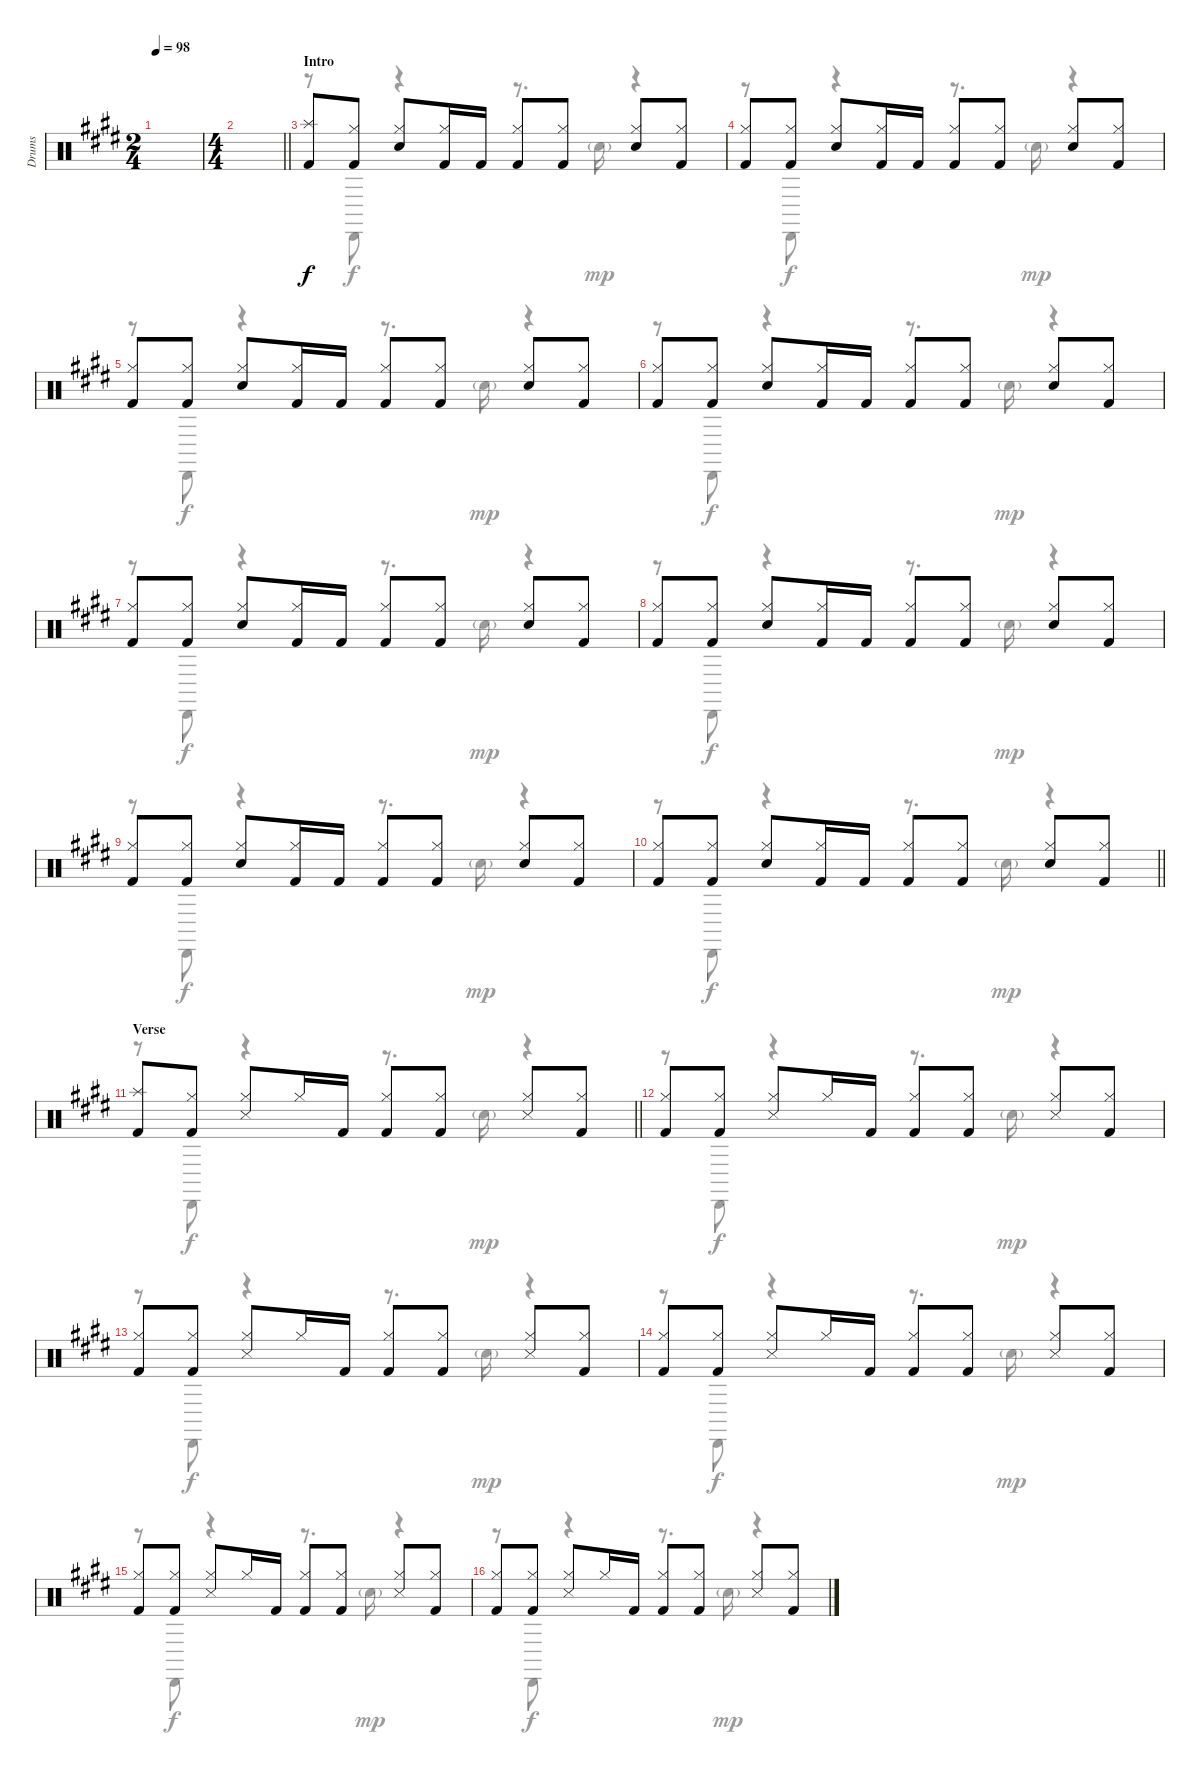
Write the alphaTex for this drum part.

\track ("Drums" "Drums") {instrument percussion}
\staff {score}
\articulation defaults
\voice
\ts (2 4)
\tempo 98
\clef neutral
\ks e
|
\ts (4 4)
\barLineRight lightlight
|
\section ("" "Intro")
("Splash (hit)" "Kick (hit) 2").8 ("Hi-Hat (closed)" "Kick (hit) 2").8 ("Hi-Hat (closed)" "Electric Snare (hit)").8 ("Hi-Hat (closed)" "Kick (hit) 2").16 "Kick (hit) 2".16 ("Hi-Hat (closed)" "Kick (hit) 2").8 ("Hi-Hat (closed)" "Kick (hit) 2").8 ("Hi-Hat (closed)" "Electric Snare (hit)").8 ("Hi-Hat (closed)" "Kick (hit) 2").8 |
("Hi-Hat (closed)" "Kick (hit) 2").8 ("Hi-Hat (closed)" "Kick (hit) 2").8 ("Hi-Hat (closed)" "Electric Snare (hit)").8 ("Hi-Hat (closed)" "Kick (hit) 2").16 "Kick (hit) 2".16 ("Hi-Hat (closed)" "Kick (hit) 2").8 ("Hi-Hat (closed)" "Kick (hit) 2").8 ("Hi-Hat (closed)" "Electric Snare (hit)").8 ("Hi-Hat (closed)" "Kick (hit) 2").8 |
("Hi-Hat (closed)" "Kick (hit) 2").8 ("Hi-Hat (closed)" "Kick (hit) 2").8 ("Hi-Hat (closed)" "Electric Snare (hit)").8 ("Hi-Hat (closed)" "Kick (hit) 2").16 "Kick (hit) 2".16 ("Hi-Hat (closed)" "Kick (hit) 2").8 ("Hi-Hat (closed)" "Kick (hit) 2").8 ("Hi-Hat (closed)" "Electric Snare (hit)").8 ("Hi-Hat (closed)" "Kick (hit) 2").8 |
("Hi-Hat (closed)" "Kick (hit) 2").8 ("Hi-Hat (closed)" "Kick (hit) 2").8 ("Hi-Hat (closed)" "Electric Snare (hit)").8 ("Hi-Hat (closed)" "Kick (hit) 2").16 "Kick (hit) 2".16 ("Hi-Hat (closed)" "Kick (hit) 2").8 ("Hi-Hat (closed)" "Kick (hit) 2").8 ("Hi-Hat (closed)" "Electric Snare (hit)").8 ("Hi-Hat (closed)" "Kick (hit) 2").8 |
("Hi-Hat (closed)" "Kick (hit) 2").8 ("Hi-Hat (closed)" "Kick (hit) 2").8 ("Hi-Hat (closed)" "Electric Snare (hit)").8 ("Hi-Hat (closed)" "Kick (hit) 2").16 "Kick (hit) 2".16 ("Hi-Hat (closed)" "Kick (hit) 2").8 ("Hi-Hat (closed)" "Kick (hit) 2").8 ("Hi-Hat (closed)" "Electric Snare (hit)").8 ("Hi-Hat (closed)" "Kick (hit) 2").8 |
("Hi-Hat (closed)" "Kick (hit) 2").8 ("Hi-Hat (closed)" "Kick (hit) 2").8 ("Hi-Hat (closed)" "Electric Snare (hit)").8 ("Hi-Hat (closed)" "Kick (hit) 2").16 "Kick (hit) 2".16 ("Hi-Hat (closed)" "Kick (hit) 2").8 ("Hi-Hat (closed)" "Kick (hit) 2").8 ("Hi-Hat (closed)" "Electric Snare (hit)").8 ("Hi-Hat (closed)" "Kick (hit) 2").8 |
("Hi-Hat (closed)" "Kick (hit) 2").8 ("Hi-Hat (closed)" "Kick (hit) 2").8 ("Hi-Hat (closed)" "Electric Snare (hit)").8 ("Hi-Hat (closed)" "Kick (hit) 2").16 "Kick (hit) 2".16 ("Hi-Hat (closed)" "Kick (hit) 2").8 ("Hi-Hat (closed)" "Kick (hit) 2").8 ("Hi-Hat (closed)" "Electric Snare (hit)").8 ("Hi-Hat (closed)" "Kick (hit) 2").8 |
\barLineRight lightlight
("Hi-Hat (closed)" "Kick (hit) 2").8 ("Hi-Hat (closed)" "Kick (hit) 2").8 ("Hi-Hat (closed)" "Electric Snare (hit)").8 ("Hi-Hat (closed)" "Kick (hit) 2").16 "Kick (hit) 2".16 ("Hi-Hat (closed)" "Kick (hit) 2").8 ("Hi-Hat (closed)" "Kick (hit) 2").8 ("Hi-Hat (closed)" "Electric Snare (hit)").8 ("Hi-Hat (closed)" "Kick (hit) 2").8 |
\section ("" "Verse")
\barLineRight lightlight
("Splash (hit)" "Kick (hit) 2").8 ("Hi-Hat (closed)" "Kick (hit) 2").8 ("Hi-Hat (closed)" "Snare (side stick) 3").8 "Hi-Hat (closed)".16 "Kick (hit) 2".16 ("Hi-Hat (closed)" "Kick (hit) 2").8 ("Hi-Hat (closed)" "Kick (hit) 2").8 ("Hi-Hat (closed)" "Snare (side stick) 3").8 ("Hi-Hat (closed)" "Kick (hit) 2").8 |
("Hi-Hat (closed)" "Kick (hit) 2").8 ("Hi-Hat (closed)" "Kick (hit) 2").8 ("Hi-Hat (closed)" "Snare (side stick) 3").8 "Hi-Hat (closed)".16 "Kick (hit) 2".16 ("Hi-Hat (closed)" "Kick (hit) 2").8 ("Hi-Hat (closed)" "Kick (hit) 2").8 ("Hi-Hat (closed)" "Snare (side stick) 3").8 ("Hi-Hat (closed)" "Kick (hit) 2").8 |
("Hi-Hat (closed)" "Kick (hit) 2").8 ("Hi-Hat (closed)" "Kick (hit) 2").8 ("Hi-Hat (closed)" "Snare (side stick) 3").8 "Hi-Hat (closed)".16 "Kick (hit) 2".16 ("Hi-Hat (closed)" "Kick (hit) 2").8 ("Hi-Hat (closed)" "Kick (hit) 2").8 ("Hi-Hat (closed)" "Snare (side stick) 3").8 ("Hi-Hat (closed)" "Kick (hit) 2").8 |
("Hi-Hat (closed)" "Kick (hit) 2").8 ("Hi-Hat (closed)" "Kick (hit) 2").8 ("Hi-Hat (closed)" "Snare (side stick) 3").8 "Hi-Hat (closed)".16 "Kick (hit) 2".16 ("Hi-Hat (closed)" "Kick (hit) 2").8 ("Hi-Hat (closed)" "Kick (hit) 2").8 ("Hi-Hat (closed)" "Snare (side stick) 3").8 ("Hi-Hat (closed)" "Kick (hit) 2").8 |
("Hi-Hat (closed)" "Kick (hit) 2").8 ("Hi-Hat (closed)" "Kick (hit) 2").8 ("Hi-Hat (closed)" "Snare (side stick) 3").8 "Hi-Hat (closed)".16 "Kick (hit) 2".16 ("Hi-Hat (closed)" "Kick (hit) 2").8 ("Hi-Hat (closed)" "Kick (hit) 2").8 ("Hi-Hat (closed)" "Snare (side stick) 3").8 ("Hi-Hat (closed)" "Kick (hit) 2").8 |
("Hi-Hat (closed)" "Kick (hit) 2").8 ("Hi-Hat (closed)" "Kick (hit) 2").8 ("Hi-Hat (closed)" "Snare (side stick) 3").8 "Hi-Hat (closed)".16 "Kick (hit) 2".16 ("Hi-Hat (closed)" "Kick (hit) 2").8 ("Hi-Hat (closed)" "Kick (hit) 2").8 ("Hi-Hat (closed)" "Snare (side stick) 3").8 ("Hi-Hat (closed)" "Kick (hit) 2").8
\voice
\clef neutral
\ottava regular
\simile none
\ks e
|
\barLineRight lightlight
|
r.8 "Cabasa (hit)".8 r.4 r.8{d} "Metronome (bell)"{g}.16{dy mp} r.4 |
r.8 "Cabasa (hit)".8{dy f} r.4 r.8{d} "Metronome (bell)"{g}.16{dy mp} r.4 |
r.8 "Cabasa (hit)".8{dy f} r.4 r.8{d} "Metronome (bell)"{g}.16{dy mp} r.4 |
r.8 "Cabasa (hit)".8{dy f} r.4 r.8{d} "Metronome (bell)"{g}.16{dy mp} r.4 |
r.8 "Cabasa (hit)".8{dy f} r.4 r.8{d} "Metronome (bell)"{g}.16{dy mp} r.4 |
r.8 "Cabasa (hit)".8{dy f} r.4 r.8{d} "Metronome (bell)"{g}.16{dy mp} r.4 |
r.8 "Cabasa (hit)".8{dy f} r.4 r.8{d} "Metronome (bell)"{g}.16{dy mp} r.4 |
\barLineRight lightlight
r.8 "Cabasa (hit)".8{dy f} r.4 r.8{d} "Metronome (bell)"{g}.16{dy mp} r.4 |
\barLineRight lightlight
r.8 "Cabasa (hit)".8{dy f} r.4 r.8{d} "Metronome (bell)"{g}.16{dy mp} r.4 |
r.8 "Cabasa (hit)".8{dy f} r.4 r.8{d} "Metronome (bell)"{g}.16{dy mp} r.4 |
r.8 "Cabasa (hit)".8{dy f} r.4 r.8{d} "Metronome (bell)"{g}.16{dy mp} r.4 |
r.8 "Cabasa (hit)".8{dy f} r.4 r.8{d} "Metronome (bell)"{g}.16{dy mp} r.4 |
r.8 "Cabasa (hit)".8{dy f} r.4 r.8{d} "Metronome (bell)"{g}.16{dy mp} r.4 |
r.8 "Cabasa (hit)".8{dy f} r.4 r.8{d} "Metronome (bell)"{g}.16{dy mp} r.4
